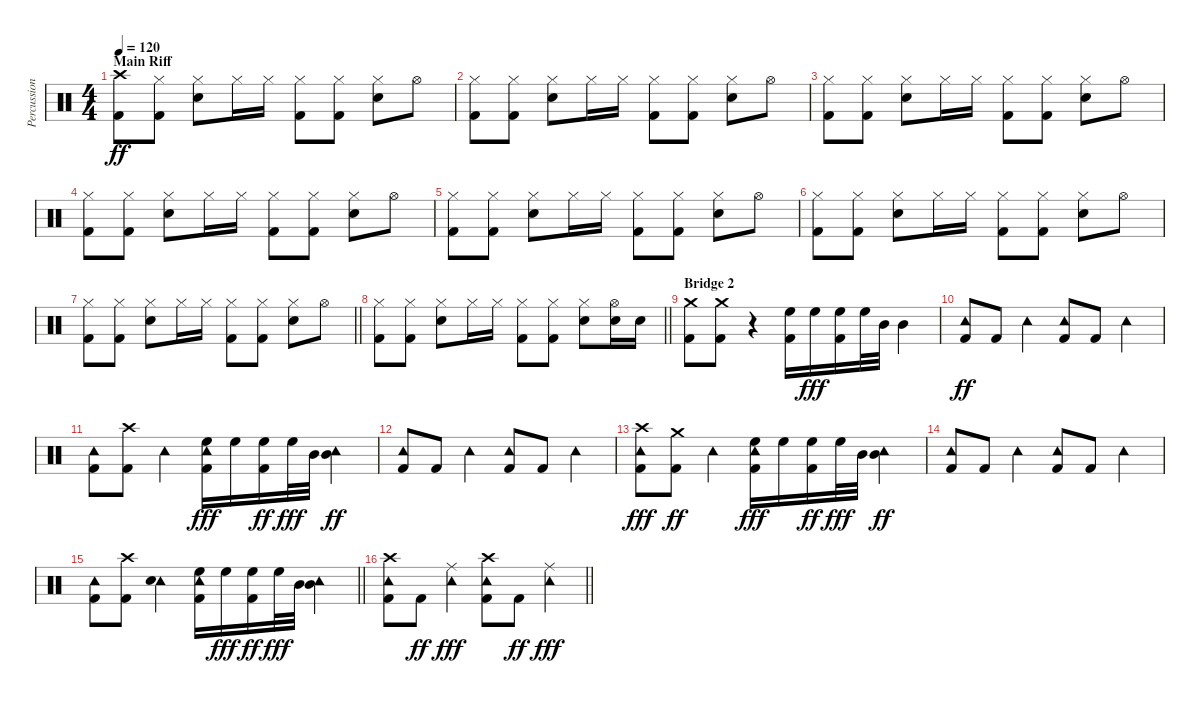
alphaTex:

\track ("Percussion" "Percussion") {instrument percussion}
\staff {score}
\articulation defaults
\ts (4 4)
\section ("" "Main Riff")
\tempo 120
\clef neutral
\ks c
("Crash high (hit)" "Kick (hit) 2").8{dy ff} ("Kick (hit) 2" "Hi-Hat (closed)").8 ("Hi-Hat (closed)" "Snare (hit) 2").8 "Hi-Hat (closed)".16 "Hi-Hat (closed)".16 ("Kick (hit) 2" "Hi-Hat (closed)").8 ("Kick (hit) 2" "Hi-Hat (closed)").8 ("Hi-Hat (closed)" "Snare (hit) 2").8 "Hi-Hat (open)".8 |
("Kick (hit) 2" "Hi-Hat (closed)").8 ("Kick (hit) 2" "Hi-Hat (closed)").8 ("Hi-Hat (closed)" "Snare (hit) 2").8 "Hi-Hat (closed)".16 "Hi-Hat (closed)".16 ("Hi-Hat (closed)" "Kick (hit) 2").8 ("Kick (hit) 2" "Hi-Hat (closed)").8 ("Snare (hit) 2" "Hi-Hat (closed)").8 "Hi-Hat (open)".8 |
("Hi-Hat (closed)" "Kick (hit) 2").8 ("Hi-Hat (closed)" "Kick (hit) 2").8 ("Hi-Hat (closed)" "Snare (hit) 2").8 "Hi-Hat (closed)".16 "Hi-Hat (closed)".16 ("Hi-Hat (closed)" "Kick (hit) 2").8 ("Hi-Hat (closed)" "Kick (hit) 2").8 ("Hi-Hat (closed)" "Snare (hit) 2").8 "Hi-Hat (open)".8 |
("Hi-Hat (closed)" "Kick (hit) 2").8 ("Hi-Hat (closed)" "Kick (hit) 2").8 ("Hi-Hat (closed)" "Snare (hit) 2").8 "Hi-Hat (closed)".16 "Hi-Hat (closed)".16 ("Hi-Hat (closed)" "Kick (hit) 2").8 ("Kick (hit) 2" "Hi-Hat (closed)").8 ("Snare (hit) 2" "Hi-Hat (closed)").8 "Hi-Hat (open)".8 |
("Hi-Hat (closed)" "Kick (hit) 2").8 ("Hi-Hat (closed)" "Kick (hit) 2").8 ("Hi-Hat (closed)" "Snare (hit) 2").8 "Hi-Hat (closed)".16 "Hi-Hat (closed)".16 ("Kick (hit) 2" "Hi-Hat (closed)").8 ("Hi-Hat (closed)" "Kick (hit) 2").8 ("Hi-Hat (closed)" "Snare (hit) 2").8 "Hi-Hat (open)".8 |
("Hi-Hat (closed)" "Kick (hit) 2").8 ("Hi-Hat (closed)" "Kick (hit) 2").8 ("Hi-Hat (closed)" "Snare (hit) 2").8 "Hi-Hat (closed)".16 "Hi-Hat (closed)".16 ("Hi-Hat (closed)" "Kick (hit) 2").8 ("Hi-Hat (closed)" "Kick (hit) 2").8 ("Hi-Hat (closed)" "Snare (hit) 2").8 "Hi-Hat (open)".8 |
\barLineRight lightlight
("Hi-Hat (closed)" "Kick (hit) 2").8 ("Hi-Hat (closed)" "Kick (hit) 2").8 ("Snare (hit) 2" "Hi-Hat (closed)").8 "Hi-Hat (closed)".16 "Hi-Hat (closed)".16 ("Kick (hit) 2" "Hi-Hat (closed)").8 ("Hi-Hat (closed)" "Kick (hit) 2").8 ("Hi-Hat (closed)" "Snare (hit) 2").8 "Hi-Hat (open)".8 |
\barLineRight lightlight
("Kick (hit) 2" "Hi-Hat (closed)").8 ("Hi-Hat (closed)" "Kick (hit) 2").8 ("Snare (hit) 2" "Hi-Hat (closed)").8 "Hi-Hat (closed)".16 "Hi-Hat (closed)".16 ("Hi-Hat (closed)" "Kick (hit) 2").8 ("Hi-Hat (closed)" "Kick (hit) 2").8 ("Hi-Hat (closed)" "Snare (hit) 2").8 ("Hi-Hat (open)" "Snare (hit) 2").16 "Snare (hit) 2".16 |
\section ("" "Bridge 2")
("Crash medium (hit)" "Kick (hit) 2").8 ("Crash medium (hit)" "Kick (hit) 2").8 r.4 ("High Floor Tom (hit)" "Kick (hit) 2").16 "High Floor Tom (hit)".16{dy fff} ("Kick (hit) 2" "High Floor Tom (hit)").16 "High Floor Tom (hit)".32 "Mid Tom (hit)".32 "Mid Tom (hit)".4 |
("Tambourine (hit)" "Kick (hit) 2").8{dy ff} "Kick (hit) 2".8 "Tambourine (hit)".4 ("Tambourine (hit)" "Kick (hit) 2").8 "Kick (hit) 2".8 "Tambourine (hit)".4 |
("Tambourine (hit)" "Kick (hit) 2").8 ("Crash high (hit)" "Kick (hit) 2").8 "Tambourine (hit)".4 ("Kick (hit) 2" "Tambourine (hit)" "High Floor Tom (hit)").16{dy fff} "High Floor Tom (hit)".16 ("High Floor Tom (hit)" "Kick (hit) 2").16{dy ff} "High Floor Tom (hit)".32{dy fff} "Mid Tom (hit)".32 ("Mid Tom (hit)" "Tambourine (hit)").4{dy ff} |
("Tambourine (hit)" "Kick (hit) 2").8 "Kick (hit) 2".8 "Tambourine (hit)".4 ("Tambourine (hit)" "Kick (hit) 2").8 "Kick (hit) 2".8 "Tambourine (hit)".4 |
("Tambourine (hit)" "Kick (hit) 2" "Crash high (hit)").8{dy fff} ("Crash medium (hit)" "Kick (hit) 2").8{dy ff} "Tambourine (hit)".4 ("Tambourine (hit)" "Kick (hit) 2" "High Floor Tom (hit)").16{dy fff} "High Floor Tom (hit)".16 ("High Floor Tom (hit)" "Kick (hit) 2").16{dy ff} "High Floor Tom (hit)".32{dy fff} "Mid Tom (hit)".32 ("Mid Tom (hit)" "Tambourine (hit)").4{dy ff} |
("Kick (hit) 2" "Tambourine (hit)").8 "Kick (hit) 2".8 "Tambourine (hit)".4 ("Kick (hit) 2" "Tambourine (hit)").8 "Kick (hit) 2".8 "Tambourine (hit)".4 |
\barLineRight lightlight
("Kick (hit) 2" "Tambourine (hit)").8 ("Crash high (hit)" "Kick (hit) 2").8 ("Tambourine (hit)" "Snare (hit) 2").4 ("Tambourine (hit)" "High Floor Tom (hit)" "Kick (hit) 2").16 "High Floor Tom (hit)".16{dy fff} ("High Floor Tom (hit)" "Kick (hit) 2").16{dy ff} "High Floor Tom (hit)".32{dy fff} "Mid Tom (hit)".32 ("Tambourine (hit)" "Mid Tom (hit)").4 |
\barLineRight lightlight
("Tambourine (hit)" "Kick (hit) 2" "Crash high (hit)").8 "Kick (hit) 2".8{dy ff} ("Tambourine (hit)" "Ride (middle)").4{dy fff} ("Kick (hit) 2" "Tambourine (hit)" "Crash high (hit)").8 "Kick (hit) 2".8{dy ff} ("Tambourine (hit)" "Ride (middle)").4{dy fff}
